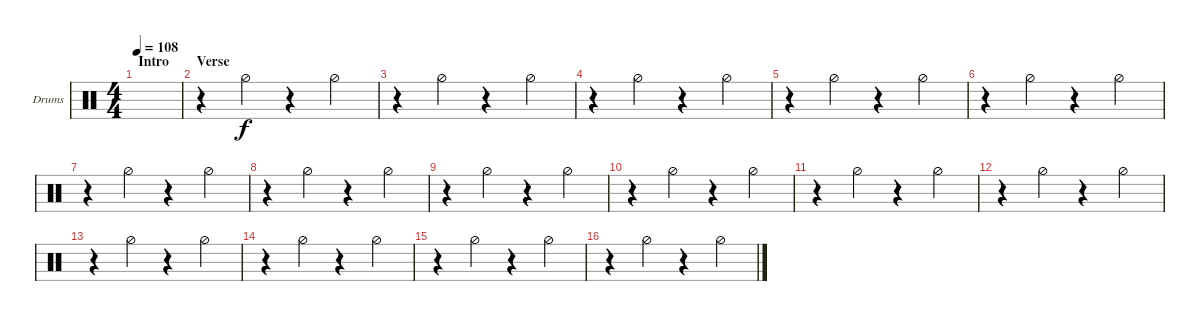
\defaultSystemsLayout 4
\bracketExtendMode groupsimilarinstruments
\firstSystemTrackNameOrientation horizontal
\otherSystemsTrackNameOrientation horizontal
\track ("Quiet Drumkit" "Drums") {instrument percussion}
\staff {score}
\articulation defaults
\ts (4 4)
\section ("" "Intro")
\tempo 108
\clef neutral
\ks c
|
\section ("" "Verse")
r.4 "Hi-Hat (half)".4 r.4 "Hi-Hat (half)".4 |
r.4 "Hi-Hat (half)".4 r.4 "Hi-Hat (half)".4 |
r.4 "Hi-Hat (half)".4 r.4 "Hi-Hat (half)".4 |
r.4 "Hi-Hat (half)".4 r.4 "Hi-Hat (half)".4 |
r.4 "Hi-Hat (half)".4 r.4 "Hi-Hat (half)".4 |
r.4 "Hi-Hat (half)".4 r.4 "Hi-Hat (half)".4 |
r.4 "Hi-Hat (half)".4 r.4 "Hi-Hat (half)".4 |
r.4 "Hi-Hat (half)".4 r.4 "Hi-Hat (half)".4 |
r.4 "Hi-Hat (half)".4 r.4 "Hi-Hat (half)".4 |
r.4 "Hi-Hat (half)".4 r.4 "Hi-Hat (half)".4 |
r.4 "Hi-Hat (half)".4 r.4 "Hi-Hat (half)".4 |
r.4 "Hi-Hat (half)".4 r.4 "Hi-Hat (half)".4 |
r.4 "Hi-Hat (half)".4 r.4 "Hi-Hat (half)".4 |
r.4 "Hi-Hat (half)".4 r.4 "Hi-Hat (half)".4 |
r.4 "Hi-Hat (half)".4 r.4 "Hi-Hat (half)".4
